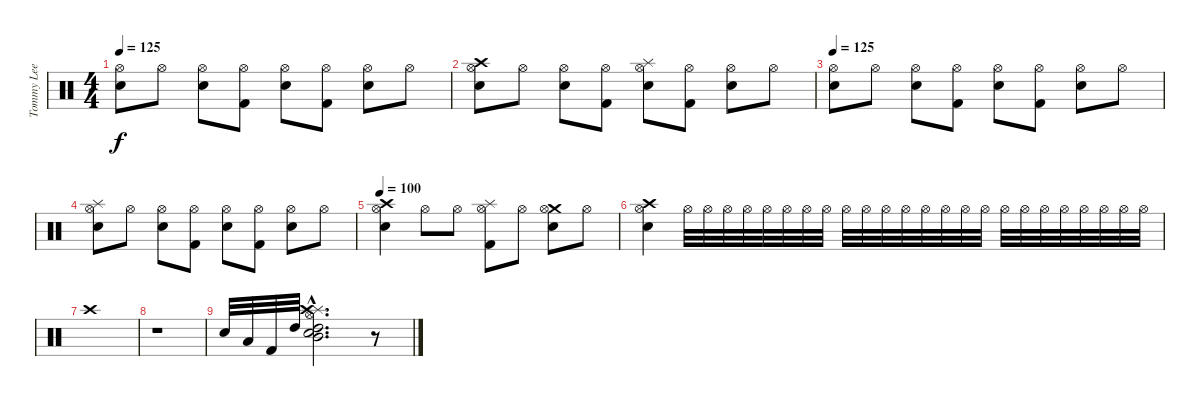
\track ("Tommy Lee" "Tommy Lee") {instrument percussion}
\staff {score}
\articulation defaults
\ts (4 4)
\tempo 125
\clef neutral
\ks c
("Hi-Hat (open)" "Snare (hit) 2").8{dy f} "Hi-Hat (open)".8 ("Hi-Hat (open)" "Snare (hit) 2").8 ("Hi-Hat (open)" "Kick (hit) 2").8 ("Hi-Hat (open)" "Snare (hit) 2").8 ("Hi-Hat (open)" "Kick (hit) 2").8 ("Hi-Hat (open)" "Snare (hit) 2").8 "Hi-Hat (open)".8 |
("Crash high (hit)" "Hi-Hat (open)" "Snare (hit) 2").8 "Hi-Hat (open)".8 ("Hi-Hat (open)" "Snare (hit) 2").8 ("Hi-Hat (open)" "Kick (hit) 2").8 ("Splash (hit)" "Hi-Hat (open)" "Snare (hit) 2").8 ("Hi-Hat (open)" "Kick (hit) 2").8 ("Hi-Hat (open)" "Snare (hit) 2").8 "Hi-Hat (open)".8 |
\tempo 125
("Hi-Hat (open)" "Snare (hit) 2").8 "Hi-Hat (open)".8 ("Hi-Hat (open)" "Snare (hit) 2").8 ("Hi-Hat (open)" "Kick (hit) 2").8 ("Hi-Hat (open)" "Snare (hit) 2").8 ("Hi-Hat (open)" "Kick (hit) 2").8 ("Hi-Hat (open)" "Snare (hit) 2").8 "Hi-Hat (open)".8 |
("Splash (hit)" "Hi-Hat (open)" "Snare (hit) 2").8 "Hi-Hat (open)".8 ("Hi-Hat (open)" "Snare (hit) 2").8 ("Hi-Hat (open)" "Kick (hit) 2").8 ("Hi-Hat (open)" "Snare (hit) 2").8 ("Hi-Hat (open)" "Kick (hit) 2").8 ("Hi-Hat (open)" "Snare (hit) 2").8 "Hi-Hat (open)".8 |
\tempo 100
("Crash high (hit)" "Hi-Hat (open)" "Snare (hit) 2").4 "Hi-Hat (open)".8 "Hi-Hat (open)".8 ("Splash (hit)" "Hi-Hat (open)" "Kick (hit) 2").8 "Hi-Hat (open)".8 ("Crash medium (hit)" "Hi-Hat (open)" "Snare (hit) 2").8 "Hi-Hat (open)".8 |
("Crash high (hit)" "Hi-Hat (open)" "Snare (hit) 2").4 "Hi-Hat (open)".32 "Hi-Hat (open)".32 "Hi-Hat (open)".32 "Hi-Hat (open)".32 "Hi-Hat (open)".32 "Hi-Hat (open)".32 "Hi-Hat (open)".32 "Hi-Hat (open)".32 "Hi-Hat (open)".32 "Hi-Hat (open)".32 "Hi-Hat (open)".32 "Hi-Hat (open)".32 "Hi-Hat (open)".32 "Hi-Hat (open)".32 "Hi-Hat (open)".32 "Hi-Hat (open)".32 "Hi-Hat (open)".32 "Hi-Hat (open)".32 "Hi-Hat (open)".32 "Hi-Hat (open)".32 "Hi-Hat (open)".32 "Hi-Hat (open)".32 "Hi-Hat (open)".32 "Hi-Hat (open)".32 |
"Crash high (hit)".1 |
r.1 |
"Snare (hit) 2".32 "Low Tom (hit)".32 "Kick (hit) 2".32 "High Tom (hit)".32 ("Splash (hit)"{hac} "Crash high (hit)"{hac} "Hi-Hat (open)"{hac} "Snare (hit) 2"{hac} "High Tom (hit)"{hac} "Mid Tom (hit)"{hac}).2{d} r.8
